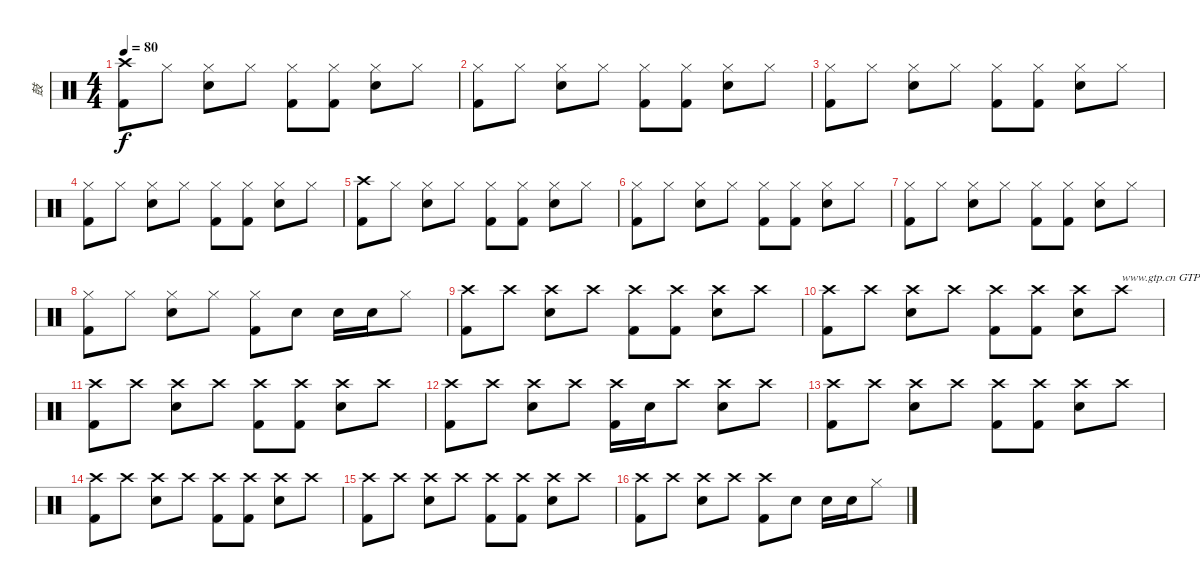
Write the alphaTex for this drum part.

\track ("鼓" "鼓") {instrument percussion}
\staff {score}
\articulation defaults
\ts (4 4)
\tempo 80
\clef neutral
\ks c
("Crash high (hit)" "Kick (hit) 2").8{dy f} "Hi-Hat (closed)".8 ("Hi-Hat (closed)" "Electric Snare (hit)").8 "Hi-Hat (closed)".8 ("Hi-Hat (closed)" "Kick (hit) 2").8 ("Hi-Hat (closed)" "Kick (hit) 2").8 ("Hi-Hat (closed)" "Electric Snare (hit)").8 "Hi-Hat (closed)".8 |
("Hi-Hat (closed)" "Kick (hit) 2").8 "Hi-Hat (closed)".8 ("Hi-Hat (closed)" "Electric Snare (hit)").8 "Hi-Hat (closed)".8 ("Hi-Hat (closed)" "Kick (hit) 2").8 ("Hi-Hat (closed)" "Kick (hit) 2").8 ("Hi-Hat (closed)" "Electric Snare (hit)").8 "Hi-Hat (closed)".8 |
("Hi-Hat (closed)" "Kick (hit) 2").8 "Hi-Hat (closed)".8 ("Hi-Hat (closed)" "Electric Snare (hit)").8 "Hi-Hat (closed)".8 ("Hi-Hat (closed)" "Kick (hit) 2").8 ("Hi-Hat (closed)" "Kick (hit) 2").8 ("Hi-Hat (closed)" "Electric Snare (hit)").8 "Hi-Hat (closed)".8 |
("Hi-Hat (closed)" "Kick (hit) 2").8 "Hi-Hat (closed)".8 ("Hi-Hat (closed)" "Electric Snare (hit)").8 "Hi-Hat (closed)".8 ("Hi-Hat (closed)" "Kick (hit) 2").8 ("Hi-Hat (closed)" "Kick (hit) 2").8 ("Hi-Hat (closed)" "Electric Snare (hit)").8 "Hi-Hat (closed)".8 |
("Crash high (hit)" "Kick (hit) 2").8 "Hi-Hat (closed)".8 ("Hi-Hat (closed)" "Electric Snare (hit)").8 "Hi-Hat (closed)".8 ("Hi-Hat (closed)" "Kick (hit) 2").8 ("Hi-Hat (closed)" "Kick (hit) 2").8 ("Hi-Hat (closed)" "Electric Snare (hit)").8 "Hi-Hat (closed)".8 |
("Hi-Hat (closed)" "Kick (hit) 2").8 "Hi-Hat (closed)".8 ("Hi-Hat (closed)" "Electric Snare (hit)").8 "Hi-Hat (closed)".8 ("Hi-Hat (closed)" "Kick (hit) 2").8 ("Hi-Hat (closed)" "Kick (hit) 2").8 ("Hi-Hat (closed)" "Electric Snare (hit)").8 "Hi-Hat (closed)".8 |
("Hi-Hat (closed)" "Kick (hit) 2").8 "Hi-Hat (closed)".8 ("Hi-Hat (closed)" "Electric Snare (hit)").8 "Hi-Hat (closed)".8 ("Hi-Hat (closed)" "Kick (hit) 2").8 ("Hi-Hat (closed)" "Kick (hit) 2").8 ("Hi-Hat (closed)" "Electric Snare (hit)").8 "Hi-Hat (closed)".8 |
("Hi-Hat (closed)" "Kick (hit) 2").8 "Hi-Hat (closed)".8 ("Hi-Hat (closed)" "Electric Snare (hit)").8 "Hi-Hat (closed)".8 ("Hi-Hat (closed)" "Kick (hit) 2").8 "Electric Snare (hit)".8 "Electric Snare (hit)".16 "Electric Snare (hit)".16 "Hi-Hat (closed)".8 |
("Crash high (hit)" "Kick (hit) 2").8 "Crash high (hit)".8 ("Crash high (hit)" "Electric Snare (hit)").8 "Crash high (hit)".8 ("Crash high (hit)" "Kick (hit) 2").8 ("Crash high (hit)" "Kick (hit) 2").8 ("Crash high (hit)" "Electric Snare (hit)").8 "Crash high (hit)".8 |
("Crash high (hit)" "Kick (hit) 2").8 "Crash high (hit)".8 ("Crash high (hit)" "Electric Snare (hit)").8 "Crash high (hit)".8 ("Crash high (hit)" "Kick (hit) 2").8 ("Crash high (hit)" "Kick (hit) 2").8 ("Crash high (hit)" "Electric Snare (hit)").8 "Crash high (hit)".8{txt "www.gtp.cn GTP中文娱乐网为您提供优秀的谱子"} |
("Crash high (hit)" "Kick (hit) 2").8 "Crash high (hit)".8 ("Crash high (hit)" "Electric Snare (hit)").8 "Crash high (hit)".8 ("Crash high (hit)" "Kick (hit) 2").8 ("Crash high (hit)" "Kick (hit) 2").8 ("Crash high (hit)" "Electric Snare (hit)").8 "Crash high (hit)".8 |
("Crash high (hit)" "Kick (hit) 2").8 "Crash high (hit)".8 ("Crash high (hit)" "Electric Snare (hit)").8 "Crash high (hit)".8 ("Crash high (hit)" "Kick (hit) 2").16 "Electric Snare (hit)".16 "Crash high (hit)".8 ("Crash high (hit)" "Electric Snare (hit)").8 "Crash high (hit)".8 |
("Crash high (hit)" "Kick (hit) 2").8 "Crash high (hit)".8 ("Crash high (hit)" "Electric Snare (hit)").8 "Crash high (hit)".8 ("Crash high (hit)" "Kick (hit) 2").8 ("Crash high (hit)" "Kick (hit) 2").8 ("Crash high (hit)" "Electric Snare (hit)").8 "Crash high (hit)".8 |
("Crash high (hit)" "Kick (hit) 2").8 "Crash high (hit)".8 ("Crash high (hit)" "Electric Snare (hit)").8 "Crash high (hit)".8 ("Crash high (hit)" "Kick (hit) 2").8 ("Crash high (hit)" "Kick (hit) 2").8 ("Crash high (hit)" "Electric Snare (hit)").8 "Crash high (hit)".8 |
("Crash high (hit)" "Kick (hit) 2").8 "Crash high (hit)".8 ("Crash high (hit)" "Electric Snare (hit)").8 "Crash high (hit)".8 ("Crash high (hit)" "Kick (hit) 2").8 ("Crash high (hit)" "Kick (hit) 2").8 ("Crash high (hit)" "Electric Snare (hit)").8 "Crash high (hit)".8 |
("Crash high (hit)" "Kick (hit) 2").8 "Crash high (hit)".8 ("Crash high (hit)" "Electric Snare (hit)").8 "Crash high (hit)".8 ("Crash high (hit)" "Kick (hit) 2").8 "Electric Snare (hit)".8 "Electric Snare (hit)".16 "Electric Snare (hit)".16 "Hi-Hat (closed)".8
